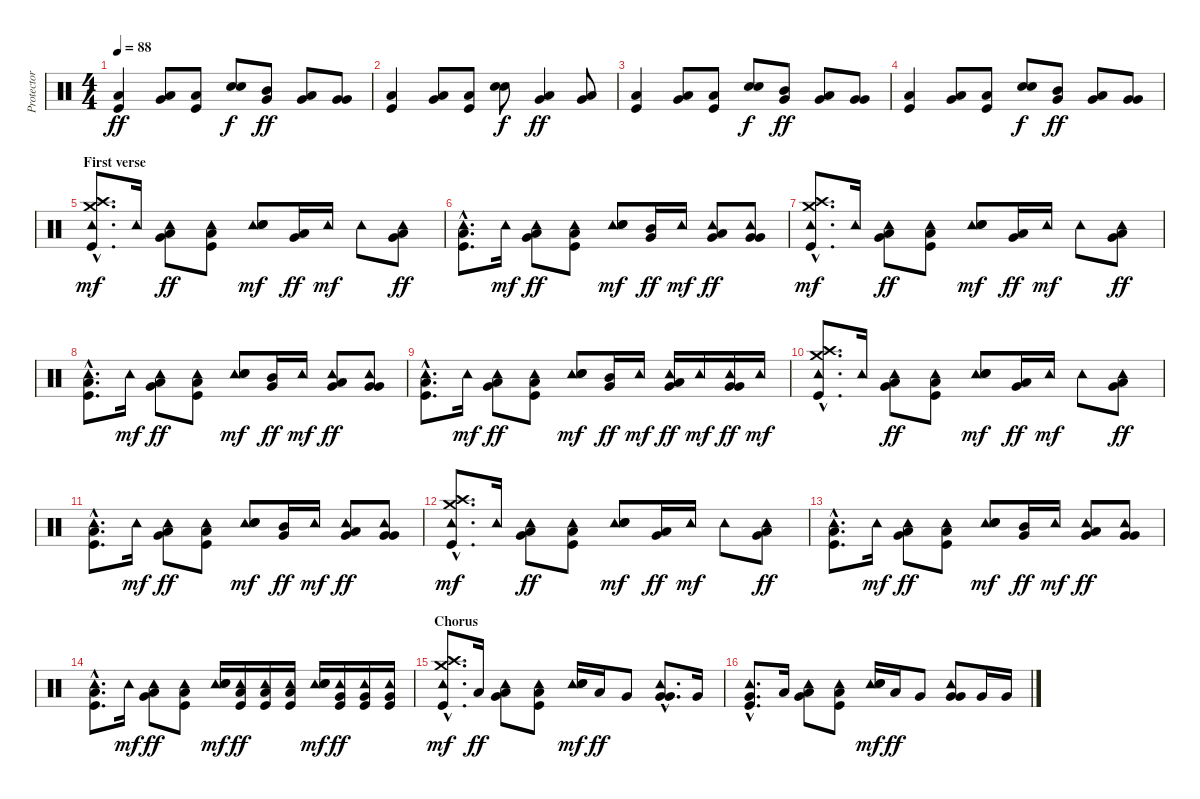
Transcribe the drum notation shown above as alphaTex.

\track ("Protector (Drums)" "Protector ") {instrument percussion}
\staff {score}
\articulation defaults
\ts (4 4)
\tempo 88
\clef neutral
\ks c
("Low Floor Tom (hit)" "Kick (hit)").4{dy ff} ("Low Tom (hit)" "Very Low Tom (hit)").8{bu 120} ("Low Floor Tom (hit)" "Kick (hit)").8 ("Electric Snare (hit)" "Snare (hit) 2").8{dy f} ("Mid Tom (hit)" "Very Low Tom (hit)").8{bu 120 dy ff} ("Low Tom (hit)" "Very Low Tom (hit)").8{bu 120} ("Very Low Tom (hit)" "Very Low Tom (hit)").8{bu 120} |
("Low Floor Tom (hit)" "Kick (hit)").4 ("Low Tom (hit)" "Very Low Tom (hit)").8{bu 120} ("Low Floor Tom (hit)" "Kick (hit)").8 ("Electric Snare (hit)" "Snare (hit) 2").8{dy f} ("Low Tom (hit)" "Very Low Tom (hit)").4{bu 120 dy ff} ("Low Tom (hit)" "Very Low Tom (hit)").8{bu 120} |
("Low Floor Tom (hit)" "Kick (hit)").4 ("Low Tom (hit)" "Very Low Tom (hit)").8{bu 120} ("Low Floor Tom (hit)" "Kick (hit)").8 ("Electric Snare (hit)" "Snare (hit) 2").8{dy f} ("Mid Tom (hit)" "Very Low Tom (hit)").8{bu 120 dy ff} ("Low Tom (hit)" "Very Low Tom (hit)").8{bu 120} ("Very Low Tom (hit)" "Very Low Tom (hit)").8{bu 120} |
("Low Floor Tom (hit)" "Kick (hit)").4 ("Low Tom (hit)" "Very Low Tom (hit)").8{bu 120} ("Low Floor Tom (hit)" "Kick (hit)").8 ("Electric Snare (hit)" "Snare (hit) 2").8{dy f} ("Mid Tom (hit)" "Very Low Tom (hit)").8{bu 120 dy ff} ("Low Tom (hit)" "Very Low Tom (hit)").8{bu 120} ("Very Low Tom (hit)" "Very Low Tom (hit)").8{bu 120} |
\section ("" "First verse")
("Crash high (hit)"{hac} "Crash medium (hit)"{hac} "Tambourine (hit)"{hac} "Kick (hit)"{hac}).8{d dy mf} "Tambourine (hit)".16 ("Tambourine (hit)" "Low Tom (hit)" "Very Low Tom (hit)").8{bu 120 dy ff} ("Tambourine (hit)" "Low Floor Tom (hit)" "Kick (hit)").8 ("Tambourine (hit)" "Electric Snare (hit)" "Snare (hit) 2").8{dy mf} ("Low Tom (hit)" "Very Low Tom (hit)").16{bu 120 dy ff} "Tambourine (hit)".16{dy mf} "Tambourine (hit)".8 ("Tambourine (hit)" "Low Tom (hit)" "Very Low Tom (hit)").8{bu 120 dy ff} |
("Tambourine (hit)"{hac} "Low Floor Tom (hit)"{hac} "Kick (hit)"{hac}).8{d} "Tambourine (hit)".16{dy mf} ("Tambourine (hit)" "Low Tom (hit)" "Very Low Tom (hit)").8{bu 120 dy ff} ("Tambourine (hit)" "Low Floor Tom (hit)" "Kick (hit)").8 ("Tambourine (hit)" "Electric Snare (hit)" "Snare (hit) 2").8{dy mf} ("Mid Tom (hit)" "Very Low Tom (hit)").16{bu 120 dy ff} "Tambourine (hit)".16{dy mf} ("Tambourine (hit)" "Low Tom (hit)" "Very Low Tom (hit)").8{bu 120 dy ff} ("Tambourine (hit)" "Very Low Tom (hit)" "Very Low Tom (hit)").8{bu 120} |
("Crash high (hit)"{hac} "Crash medium (hit)"{hac} "Tambourine (hit)"{hac} "Kick (hit)"{hac}).8{d dy mf} "Tambourine (hit)".16 ("Tambourine (hit)" "Low Tom (hit)" "Very Low Tom (hit)").8{bu 120 dy ff} ("Tambourine (hit)" "Low Floor Tom (hit)" "Kick (hit)").8 ("Tambourine (hit)" "Electric Snare (hit)" "Snare (hit) 2").8{dy mf} ("Low Tom (hit)" "Very Low Tom (hit)").16{bu 120 dy ff} "Tambourine (hit)".16{dy mf} "Tambourine (hit)".8 ("Tambourine (hit)" "Low Tom (hit)" "Very Low Tom (hit)").8{bu 120 dy ff} |
("Tambourine (hit)"{hac} "Low Floor Tom (hit)"{hac} "Kick (hit)"{hac}).8{d} "Tambourine (hit)".16{dy mf} ("Tambourine (hit)" "Low Tom (hit)" "Very Low Tom (hit)").8{bu 120 dy ff} ("Tambourine (hit)" "Low Floor Tom (hit)" "Kick (hit)").8 ("Tambourine (hit)" "Electric Snare (hit)" "Snare (hit) 2").8{dy mf} ("Mid Tom (hit)" "Very Low Tom (hit)").16{bu 120 dy ff} "Tambourine (hit)".16{dy mf} ("Tambourine (hit)" "Low Tom (hit)" "Very Low Tom (hit)").8{bu 120 dy ff} ("Tambourine (hit)" "Very Low Tom (hit)" "Very Low Tom (hit)").8{bu 120} |
("Tambourine (hit)"{hac} "Low Floor Tom (hit)"{hac} "Kick (hit)"{hac}).8{d} "Tambourine (hit)".16{dy mf} ("Tambourine (hit)" "Low Tom (hit)" "Very Low Tom (hit)").8{bu 120 dy ff} ("Tambourine (hit)" "Low Floor Tom (hit)" "Kick (hit)").8 ("Tambourine (hit)" "Electric Snare (hit)" "Snare (hit) 2").8{dy mf} ("Mid Tom (hit)" "Very Low Tom (hit)").16{bu 120 dy ff} "Tambourine (hit)".16{dy mf} ("Tambourine (hit)" "Low Tom (hit)" "Very Low Tom (hit)").16{bu 120 dy ff} "Tambourine (hit)".16{dy mf} ("Tambourine (hit)" "Very Low Tom (hit)" "Very Low Tom (hit)").16{bu 120 dy ff} "Tambourine (hit)".16{dy mf} |
("Crash high (hit)"{hac} "Crash medium (hit)"{hac} "Tambourine (hit)"{hac} "Kick (hit)"{hac}).8{d} "Tambourine (hit)".16 ("Tambourine (hit)" "Low Tom (hit)" "Very Low Tom (hit)").8{bu 120 dy ff} ("Tambourine (hit)" "Low Floor Tom (hit)" "Kick (hit)").8 ("Tambourine (hit)" "Electric Snare (hit)" "Snare (hit) 2").8{dy mf} ("Low Tom (hit)" "Very Low Tom (hit)").16{bu 120 dy ff} "Tambourine (hit)".16{dy mf} "Tambourine (hit)".8 ("Tambourine (hit)" "Low Tom (hit)" "Very Low Tom (hit)").8{bu 120 dy ff} |
("Tambourine (hit)"{hac} "Low Floor Tom (hit)"{hac} "Kick (hit)"{hac}).8{d} "Tambourine (hit)".16{dy mf} ("Tambourine (hit)" "Low Tom (hit)" "Very Low Tom (hit)").8{bu 120 dy ff} ("Tambourine (hit)" "Low Floor Tom (hit)" "Kick (hit)").8 ("Tambourine (hit)" "Electric Snare (hit)" "Snare (hit) 2").8{dy mf} ("Mid Tom (hit)" "Very Low Tom (hit)").16{bu 120 dy ff} "Tambourine (hit)".16{dy mf} ("Tambourine (hit)" "Low Tom (hit)" "Very Low Tom (hit)").8{bu 120 dy ff} ("Tambourine (hit)" "Very Low Tom (hit)" "Very Low Tom (hit)").8{bu 120} |
("Crash high (hit)"{hac} "Crash medium (hit)"{hac} "Tambourine (hit)"{hac} "Kick (hit)"{hac}).8{d dy mf} "Tambourine (hit)".16 ("Tambourine (hit)" "Low Tom (hit)" "Very Low Tom (hit)").8{bu 120 dy ff} ("Tambourine (hit)" "Low Floor Tom (hit)" "Kick (hit)").8 ("Tambourine (hit)" "Electric Snare (hit)" "Snare (hit) 2").8{dy mf} ("Low Tom (hit)" "Very Low Tom (hit)").16{bu 120 dy ff} "Tambourine (hit)".16{dy mf} "Tambourine (hit)".8 ("Tambourine (hit)" "Low Tom (hit)" "Very Low Tom (hit)").8{bu 120 dy ff} |
("Tambourine (hit)"{hac} "Low Floor Tom (hit)"{hac} "Kick (hit)"{hac}).8{d} "Tambourine (hit)".16{dy mf} ("Tambourine (hit)" "Low Tom (hit)" "Very Low Tom (hit)").8{bu 120 dy ff} ("Tambourine (hit)" "Low Floor Tom (hit)" "Kick (hit)").8 ("Tambourine (hit)" "Electric Snare (hit)" "Snare (hit) 2").8{dy mf} ("Mid Tom (hit)" "Very Low Tom (hit)").16{bu 120 dy ff} "Tambourine (hit)".16{dy mf} ("Tambourine (hit)" "Low Tom (hit)" "Very Low Tom (hit)").8{bu 120 dy ff} ("Tambourine (hit)" "Very Low Tom (hit)" "Very Low Tom (hit)").8{bu 120} |
("Tambourine (hit)"{hac} "Low Floor Tom (hit)"{hac} "Kick (hit)"{hac}).8{d} "Tambourine (hit)".16{dy mf} ("Tambourine (hit)" "Low Tom (hit)" "Very Low Tom (hit)").8{bu 120 dy ff} ("Tambourine (hit)" "Low Floor Tom (hit)" "Kick (hit)").8 ("Tambourine (hit)" "Electric Snare (hit)" "Snare (hit) 2").16{dy mf} ("Tambourine (hit)" "Low Tom (hit)" "Kick (hit)").16{dy ff} ("Tambourine (hit)" "Low Tom (hit)" "Kick (hit)").16 ("Tambourine (hit)" "Low Tom (hit)" "Kick (hit)").16 ("Tambourine (hit)" "Electric Snare (hit)" "Snare (hit) 2").16{dy mf} ("Tambourine (hit)" "Very Low Tom (hit)" "Kick (hit)").16{dy ff} ("Tambourine (hit)" "Very Low Tom (hit)" "Kick (hit)").16 ("Tambourine (hit)" "Very Low Tom (hit)" "Kick (hit)").16 |
\section ("" "Chorus")
("Crash high (hit)"{hac} "Crash medium (hit)"{hac} "Tambourine (hit)"{hac} "Kick (hit)"{hac}).8{d dy mf} "Low Tom (hit)".16{dy ff} ("Tambourine (hit)" "Low Tom (hit)" "Very Low Tom (hit)").8{bu 120} ("Tambourine (hit)" "Low Floor Tom (hit)" "Kick (hit)").8 ("Tambourine (hit)" "Snare (hit) 2" "Electric Snare (hit)").16{dy mf} "Low Tom (hit)".16{dy ff} "Very Low Tom (hit)".8 ("Tambourine (hit)"{hac} "Very Low Tom (hit)"{hac} "Very Low Tom (hit)"{hac}).8{d bu 120} "Very Low Tom (hit)".16 |
("Tambourine (hit)"{hac} "Very Low Tom (hit)"{hac} "Kick (hit)"{hac}).8{d} "Low Tom (hit)".16 ("Tambourine (hit)" "Low Tom (hit)" "Very Low Tom (hit)").8{bu 120} ("Tambourine (hit)" "Low Floor Tom (hit)" "Kick (hit)").8 ("Tambourine (hit)" "Snare (hit) 2" "Electric Snare (hit)").16{dy mf} "Low Tom (hit)".16{dy ff} "Very Low Tom (hit)".8 ("Tambourine (hit)" "Very Low Tom (hit)" "Very Low Tom (hit)").8{bu 120} "Very Low Tom (hit)".16 "Very Low Tom (hit)".16
